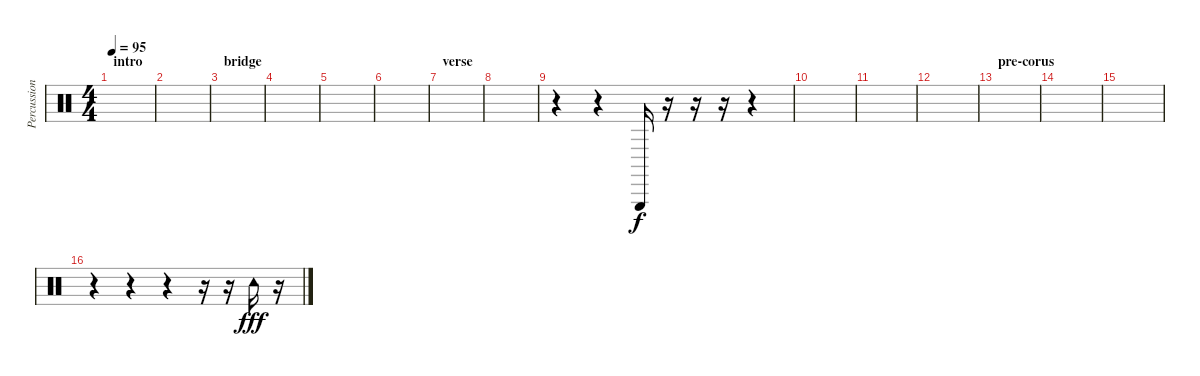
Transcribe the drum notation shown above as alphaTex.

\track ("Percussion" "Percussion") {instrument percussion}
\staff {score}
\articulation defaults
\ts (4 4)
\section ("" "intro")
\tempo 95
\clef neutral
\ks c
|
|
\section ("" "bridge")
|
|
|
|
\section ("" "verse")
|
|
r.4 r.4 "Triangle (hit)".16 r.16 r.16 r.16 r.4 |
|
|
|
\section ("" "pre-corus")
|
|
|
r.4 r.4 r.4 r.16 r.16 "Tambourine (hit)".16{dy fff} r.16
